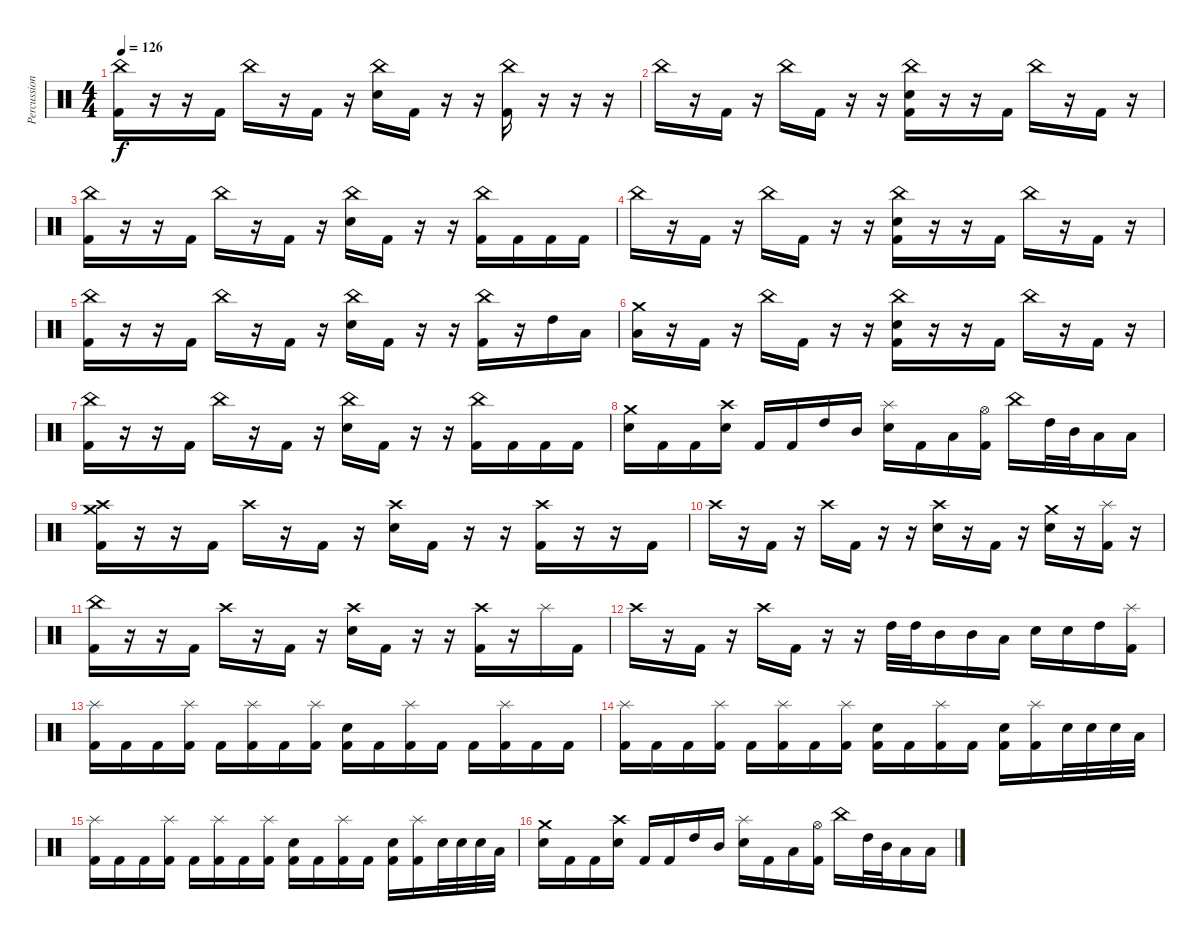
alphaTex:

\track ("Percussion" "Percussion") {instrument percussion}
\staff {score}
\articulation defaults
\ts (4 4)
\tempo 126
\clef neutral
\ks c
("China (hit)" "Kick (hit) 2").16{dy f} r.16 r.16 "Kick (hit) 2".16 "China (hit)".16 r.16 "Kick (hit) 2".16 r.16 ("China (hit)" "Snare (hit) 2").16 "Kick (hit) 2".16 r.16 r.16 ("China (hit)" "Kick (hit) 2").16 r.16 r.16 r.16 |
"China (hit)".16 r.16 "Kick (hit) 2".16 r.16 "China (hit)".16 "Kick (hit) 2".16 r.16 r.16 ("China (hit)" "Snare (hit) 2" "Kick (hit) 2").16 r.16 r.16 "Kick (hit) 2".16 "China (hit)".16 r.16 "Kick (hit) 2".16 r.16 |
("China (hit)" "Kick (hit) 2").16 r.16 r.16 "Kick (hit) 2".16 "China (hit)".16 r.16 "Kick (hit) 2".16 r.16 ("China (hit)" "Snare (hit) 2").16 "Kick (hit) 2".16 r.16 r.16 ("China (hit)" "Kick (hit) 2").16 "Kick (hit) 2".16 "Kick (hit) 2".16 "Kick (hit) 2".16 |
"China (hit)".16 r.16 "Kick (hit) 2".16 r.16 "China (hit)".16 "Kick (hit) 2".16 r.16 r.16 ("China (hit)" "Snare (hit) 2" "Kick (hit) 2").16 r.16 r.16 "Kick (hit) 2".16 "China (hit)".16 r.16 "Kick (hit) 2".16 r.16 |
("China (hit)" "Kick (hit) 2").16 r.16 r.16 "Kick (hit) 2".16 "China (hit)".16 r.16 "Kick (hit) 2".16 r.16 ("China (hit)" "Snare (hit) 2").16 "Kick (hit) 2".16 r.16 r.16 ("China (hit)" "Kick (hit) 2").16 r.16 "High Tom (hit)".16 "Low Tom (hit)".16 |
("Crash medium (hit)" "Low Floor Tom (hit)").16 r.16 "Kick (hit) 2".16 r.16 "China (hit)".16 "Kick (hit) 2".16 r.16 r.16 ("China (hit)" "Snare (hit) 2" "Kick (hit) 2").16 r.16 r.16 "Kick (hit) 2".16 "China (hit)".16 r.16 "Kick (hit) 2".16 r.16 |
("China (hit)" "Kick (hit) 2").16 r.16 r.16 "Kick (hit) 2".16 "China (hit)".16 r.16 "Kick (hit) 2".16 r.16 ("China (hit)" "Snare (hit) 2").16 "Kick (hit) 2".16 r.16 r.16 ("China (hit)" "Kick (hit) 2").16 "Kick (hit) 2".16 "Kick (hit) 2".16 "Kick (hit) 2".16 |
("Crash medium (hit)" "Snare (hit) 2").16 "Kick (hit) 2".16 "Kick (hit) 2".16 ("Crash high (hit)" "Snare (hit) 2").16 "Kick (hit) 2".16 "Kick (hit) 2".16 "High Tom (hit)".16 "Mid Tom (hit)".16 ("Splash (hit)" "Snare (hit) 2").16 "Kick (hit) 2".16 "Low Tom (hit)".16 ("Hi-Hat (open)" "Kick (hit) 2").16 "China (hit)".16 "High Tom (hit)".32 "Mid Tom (hit)".32 "Low Tom (hit)".16 "Low Tom (hit)".16 |
("Crash high (hit)" "Crash medium (hit)" "Kick (hit) 2").16 r.16 r.16 "Kick (hit) 2".16 "Crash high (hit)".16 r.16 "Kick (hit) 2".16 r.16 ("Crash high (hit)" "Snare (hit) 2").16 "Kick (hit) 2".16 r.16 r.16 ("Crash high (hit)" "Kick (hit) 2").16 r.16 r.16 "Kick (hit) 2".16 |
"Crash high (hit)".16 r.16 "Kick (hit) 2".16 r.16 "Crash high (hit)".16 "Kick (hit) 2".16 r.16 r.16 ("Crash high (hit)" "Snare (hit) 2").16 r.16 "Kick (hit) 2".16 r.16 ("Crash medium (hit)" "Snare (hit) 2").16 r.16 ("Splash (hit)" "Kick (hit) 2").16 r.16 |
("China (hit)" "Kick (hit) 2").16 r.16 r.16 "Kick (hit) 2".16 "Crash high (hit)".16 r.16 "Kick (hit) 2".16 r.16 ("Crash high (hit)" "Snare (hit) 2").16 "Kick (hit) 2".16 r.16 r.16 ("Crash high (hit)" "Kick (hit) 2").16 r.16 "Splash (hit)".16 "Kick (hit) 2".16 |
"Crash high (hit)".16 r.16 "Kick (hit) 2".16 r.16 "Crash high (hit)".16 "Kick (hit) 2".16 r.16 r.16 "High Tom (hit)".32 "High Tom (hit)".32 "Mid Tom (hit)".16 "Mid Tom (hit)".16 "Low Tom (hit)".16 "Snare (hit) 2".16 "Snare (hit) 2".16 "High Tom (hit)".16 ("Splash (hit)" "Kick (hit) 2").16 |
("Splash (hit)" "Kick (hit) 2").16 "Kick (hit) 2".16 "Kick (hit) 2".16 ("Splash (hit)" "Kick (hit) 2").16 "Kick (hit) 2".16 ("Splash (hit)" "Kick (hit) 2").16 "Kick (hit) 2".16 ("Splash (hit)" "Kick (hit) 2").16 ("Electric Snare (hit)" "Kick (hit) 2").16 "Kick (hit) 2".16 ("Splash (hit)" "Kick (hit) 2").16 "Kick (hit) 2".16 "Kick (hit) 2".16 ("Splash (hit)" "Kick (hit) 2").16 "Kick (hit) 2".16 "Kick (hit) 2".16 |
("Splash (hit)" "Kick (hit) 2").16 "Kick (hit) 2".16 "Kick (hit) 2".16 ("Splash (hit)" "Kick (hit) 2").16 "Kick (hit) 2".16 ("Splash (hit)" "Kick (hit) 2").16 "Kick (hit) 2".16 ("Splash (hit)" "Kick (hit) 2").16 ("Electric Snare (hit)" "Kick (hit) 2").16 "Kick (hit) 2".16 ("Splash (hit)" "Kick (hit) 2").16 "Kick (hit) 2".16 ("Electric Snare (hit)" "Kick (hit) 2").16 ("Splash (hit)" "Kick (hit) 2").16 "Electric Snare (hit)".32 "Electric Snare (hit)".32 "Electric Snare (hit)".32 "Low Tom (hit)".32 |
("Splash (hit)" "Kick (hit) 2").16 "Kick (hit) 2".16 "Kick (hit) 2".16 ("Splash (hit)" "Kick (hit) 2").16 "Kick (hit) 2".16 ("Splash (hit)" "Kick (hit) 2").16 "Kick (hit) 2".16 ("Splash (hit)" "Kick (hit) 2").16 ("Electric Snare (hit)" "Kick (hit) 2").16 "Kick (hit) 2".16 ("Splash (hit)" "Kick (hit) 2").16 "Kick (hit) 2".16 ("Electric Snare (hit)" "Kick (hit) 2").16 ("Splash (hit)" "Kick (hit) 2").16 "Electric Snare (hit)".32 "Electric Snare (hit)".32 "Electric Snare (hit)".32 "Low Tom (hit)".32 |
("Crash medium (hit)" "Snare (hit) 2").16 "Kick (hit) 2".16 "Kick (hit) 2".16 ("Crash high (hit)" "Snare (hit) 2").16 "Kick (hit) 2".16 "Kick (hit) 2".16 "High Tom (hit)".16 "Mid Tom (hit)".16 ("Splash (hit)" "Snare (hit) 2").16 "Kick (hit) 2".16 "Low Tom (hit)".16 ("Hi-Hat (open)" "Kick (hit) 2").16 "China (hit)".16 "High Tom (hit)".32 "Mid Tom (hit)".32 "Low Tom (hit)".16 "Low Tom (hit)".16
